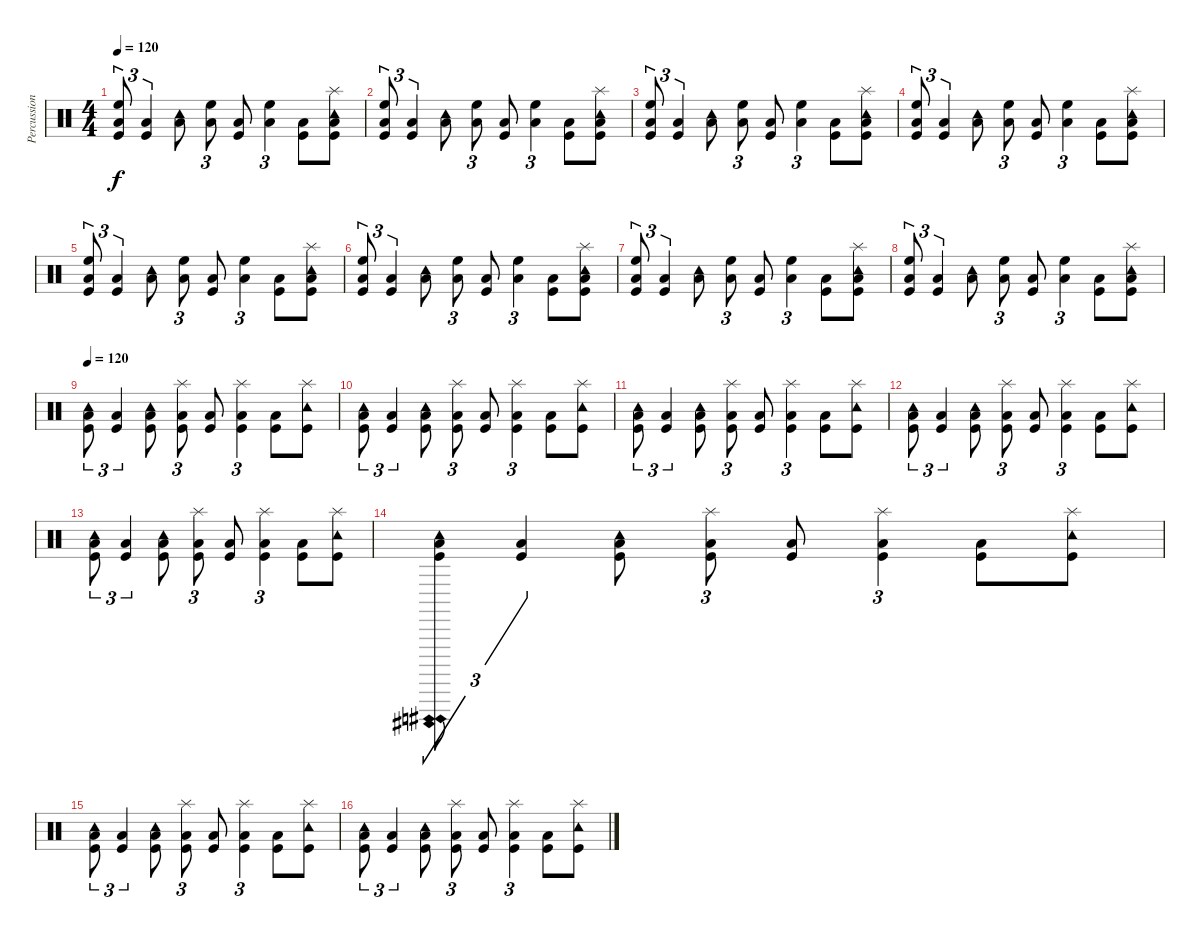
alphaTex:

\track ("Percussion" "Percussion") {instrument percussion}
\staff {score}
\articulation defaults
\ts (4 4)
\tempo 120
\clef neutral
\ks c
("High Floor Tom (hit)" "Low Tom (hit)" "Kick (hit)").8{tu (3 2) dy f} ("Low Tom (hit)" "Kick (hit)").4{tu (3 2)} ("Low Tom (hit)" "Tambourine (hit)").8 ("Low Tom (hit)" "High Floor Tom (hit)").8{tu (3 2)} ("Low Tom (hit)" "Kick (hit)").8 ("High Floor Tom (hit)" "Low Tom (hit)").4{tu (3 2)} ("Low Tom (hit)" "Kick (hit)").8 ("Low Tom (hit)" "Splash (hit)" "Tambourine (hit)" "Kick (hit)").8 |
("High Floor Tom (hit)" "Low Tom (hit)" "Kick (hit)").8{tu (3 2)} ("Low Tom (hit)" "Kick (hit)").4{tu (3 2)} ("Low Tom (hit)" "Tambourine (hit)").8 ("Low Tom (hit)" "High Floor Tom (hit)").8{tu (3 2)} ("Low Tom (hit)" "Kick (hit)").8 ("High Floor Tom (hit)" "Low Tom (hit)").4{tu (3 2)} ("Low Tom (hit)" "Kick (hit)").8 ("Low Tom (hit)" "Splash (hit)" "Tambourine (hit)" "Kick (hit)").8 |
("High Floor Tom (hit)" "Low Tom (hit)" "Kick (hit)").8{tu (3 2)} ("Low Tom (hit)" "Kick (hit)").4{tu (3 2)} ("Low Tom (hit)" "Tambourine (hit)").8 ("Low Tom (hit)" "High Floor Tom (hit)").8{tu (3 2)} ("Low Tom (hit)" "Kick (hit)").8 ("High Floor Tom (hit)" "Low Tom (hit)").4{tu (3 2)} ("Low Tom (hit)" "Kick (hit)").8 ("Low Tom (hit)" "Splash (hit)" "Tambourine (hit)" "Kick (hit)").8 |
("High Floor Tom (hit)" "Low Tom (hit)" "Kick (hit)").8{tu (3 2)} ("Low Tom (hit)" "Kick (hit)").4{tu (3 2)} ("Low Tom (hit)" "Tambourine (hit)").8 ("Low Tom (hit)" "High Floor Tom (hit)").8{tu (3 2)} ("Low Tom (hit)" "Kick (hit)").8 ("High Floor Tom (hit)" "Low Tom (hit)").4{tu (3 2)} ("Low Tom (hit)" "Kick (hit)").8 ("Low Tom (hit)" "Splash (hit)" "Tambourine (hit)" "Kick (hit)").8 |
("High Floor Tom (hit)" "Low Tom (hit)" "Kick (hit)").8{tu (3 2)} ("Low Tom (hit)" "Kick (hit)").4{tu (3 2)} ("Low Tom (hit)" "Tambourine (hit)").8 ("Low Tom (hit)" "High Floor Tom (hit)").8{tu (3 2)} ("Low Tom (hit)" "Kick (hit)").8 ("High Floor Tom (hit)" "Low Tom (hit)").4{tu (3 2)} ("Low Tom (hit)" "Kick (hit)").8 ("Low Tom (hit)" "Splash (hit)" "Tambourine (hit)" "Kick (hit)").8 |
("High Floor Tom (hit)" "Low Tom (hit)" "Kick (hit)").8{tu (3 2)} ("Low Tom (hit)" "Kick (hit)").4{tu (3 2)} ("Low Tom (hit)" "Tambourine (hit)").8 ("Low Tom (hit)" "High Floor Tom (hit)").8{tu (3 2)} ("Low Tom (hit)" "Kick (hit)").8 ("High Floor Tom (hit)" "Low Tom (hit)").4{tu (3 2)} ("Low Tom (hit)" "Kick (hit)").8 ("Low Tom (hit)" "Splash (hit)" "Tambourine (hit)" "Kick (hit)").8 |
("High Floor Tom (hit)" "Low Tom (hit)" "Kick (hit)").8{tu (3 2)} ("Low Tom (hit)" "Kick (hit)").4{tu (3 2)} ("Low Tom (hit)" "Tambourine (hit)").8 ("Low Tom (hit)" "High Floor Tom (hit)").8{tu (3 2)} ("Low Tom (hit)" "Kick (hit)").8 ("High Floor Tom (hit)" "Low Tom (hit)").4{tu (3 2)} ("Low Tom (hit)" "Kick (hit)").8 ("Low Tom (hit)" "Splash (hit)" "Tambourine (hit)" "Kick (hit)").8 |
("High Floor Tom (hit)" "Low Tom (hit)" "Kick (hit)").8{tu (3 2)} ("Low Tom (hit)" "Kick (hit)").4{tu (3 2)} ("Low Tom (hit)" "Tambourine (hit)").8 ("Low Tom (hit)" "High Floor Tom (hit)").8{tu (3 2)} ("Low Tom (hit)" "Kick (hit)").8 ("High Floor Tom (hit)" "Low Tom (hit)").4{tu (3 2)} ("Low Tom (hit)" "Kick (hit)").8 ("Low Tom (hit)" "Splash (hit)" "Tambourine (hit)" "Kick (hit)").8 |
\tempo 120
("Tambourine (hit)" "Low Tom (hit)" "Kick (hit)").8{tu (3 2)} ("Low Tom (hit)" "Kick (hit)").4{tu (3 2)} ("Low Tom (hit)" "Tambourine (hit)" "Kick (hit)").8 ("Low Tom (hit)" "Splash (hit)" "Kick (hit)").8{tu (3 2)} ("Low Tom (hit)" "Kick (hit)").8 ("Splash (hit)" "Low Tom (hit)" "Kick (hit)").4{tu (3 2)} ("Low Tom (hit)" "Kick (hit)").8 ("Splash (hit)" "Tambourine (hit)" "Kick (hit)").8 |
("Tambourine (hit)" "Low Tom (hit)" "Kick (hit)").8{tu (3 2)} ("Low Tom (hit)" "Kick (hit)").4{tu (3 2)} ("Low Tom (hit)" "Tambourine (hit)" "Kick (hit)").8 ("Low Tom (hit)" "Splash (hit)" "Kick (hit)").8{tu (3 2)} ("Low Tom (hit)" "Kick (hit)").8 ("Splash (hit)" "Low Tom (hit)" "Kick (hit)").4{tu (3 2)} ("Low Tom (hit)" "Kick (hit)").8 ("Splash (hit)" "Tambourine (hit)" "Kick (hit)").8 |
("Tambourine (hit)" "Low Tom (hit)" "Kick (hit)").8{tu (3 2)} ("Low Tom (hit)" "Kick (hit)").4{tu (3 2)} ("Low Tom (hit)" "Tambourine (hit)" "Kick (hit)").8 ("Low Tom (hit)" "Splash (hit)" "Kick (hit)").8{tu (3 2)} ("Low Tom (hit)" "Kick (hit)").8 ("Splash (hit)" "Low Tom (hit)" "Kick (hit)").4{tu (3 2)} ("Low Tom (hit)" "Kick (hit)").8 ("Splash (hit)" "Tambourine (hit)" "Kick (hit)").8 |
("Tambourine (hit)" "Low Tom (hit)" "Kick (hit)").8{tu (3 2)} ("Low Tom (hit)" "Kick (hit)").4{tu (3 2)} ("Low Tom (hit)" "Tambourine (hit)" "Kick (hit)").8 ("Low Tom (hit)" "Splash (hit)" "Kick (hit)").8{tu (3 2)} ("Low Tom (hit)" "Kick (hit)").8 ("Splash (hit)" "Low Tom (hit)" "Kick (hit)").4{tu (3 2)} ("Low Tom (hit)" "Kick (hit)").8 ("Splash (hit)" "Tambourine (hit)" "Kick (hit)").8 |
("Tambourine (hit)" "Low Tom (hit)" "Kick (hit)").8{tu (3 2)} ("Low Tom (hit)" "Kick (hit)").4{tu (3 2)} ("Low Tom (hit)" "Tambourine (hit)" "Kick (hit)").8 ("Low Tom (hit)" "Splash (hit)" "Kick (hit)").8{tu (3 2)} ("Low Tom (hit)" "Kick (hit)").8 ("Splash (hit)" "Low Tom (hit)" "Kick (hit)").4{tu (3 2)} ("Low Tom (hit)" "Kick (hit)").8 ("Splash (hit)" "Tambourine (hit)" "Kick (hit)").8 |
("Tambourine (hit)"{ah 12} "Low Tom (hit)"{ah 12} "Kick (hit)"{ah 12}).8{tu (3 2)} ("Low Tom (hit)" "Kick (hit)").4{tu (3 2)} ("Low Tom (hit)" "Tambourine (hit)" "Kick (hit)").8 ("Low Tom (hit)" "Splash (hit)" "Kick (hit)").8{tu (3 2)} ("Low Tom (hit)" "Kick (hit)").8 ("Splash (hit)" "Low Tom (hit)" "Kick (hit)").4{tu (3 2)} ("Low Tom (hit)" "Kick (hit)").8 ("Splash (hit)" "Tambourine (hit)" "Kick (hit)").8 |
("Tambourine (hit)" "Low Tom (hit)" "Kick (hit)").8{tu (3 2)} ("Low Tom (hit)" "Kick (hit)").4{tu (3 2)} ("Low Tom (hit)" "Tambourine (hit)" "Kick (hit)").8 ("Low Tom (hit)" "Splash (hit)" "Kick (hit)").8{tu (3 2)} ("Low Tom (hit)" "Kick (hit)").8 ("Splash (hit)" "Low Tom (hit)" "Kick (hit)").4{tu (3 2)} ("Low Tom (hit)" "Kick (hit)").8 ("Splash (hit)" "Tambourine (hit)" "Kick (hit)").8 |
("Tambourine (hit)" "Low Tom (hit)" "Kick (hit)").8{tu (3 2)} ("Low Tom (hit)" "Kick (hit)").4{tu (3 2)} ("Low Tom (hit)" "Tambourine (hit)" "Kick (hit)").8 ("Low Tom (hit)" "Splash (hit)" "Kick (hit)").8{tu (3 2)} ("Low Tom (hit)" "Kick (hit)").8 ("Splash (hit)" "Low Tom (hit)" "Kick (hit)").4{tu (3 2)} ("Low Tom (hit)" "Kick (hit)").8 ("Splash (hit)" "Tambourine (hit)" "Kick (hit)").8
